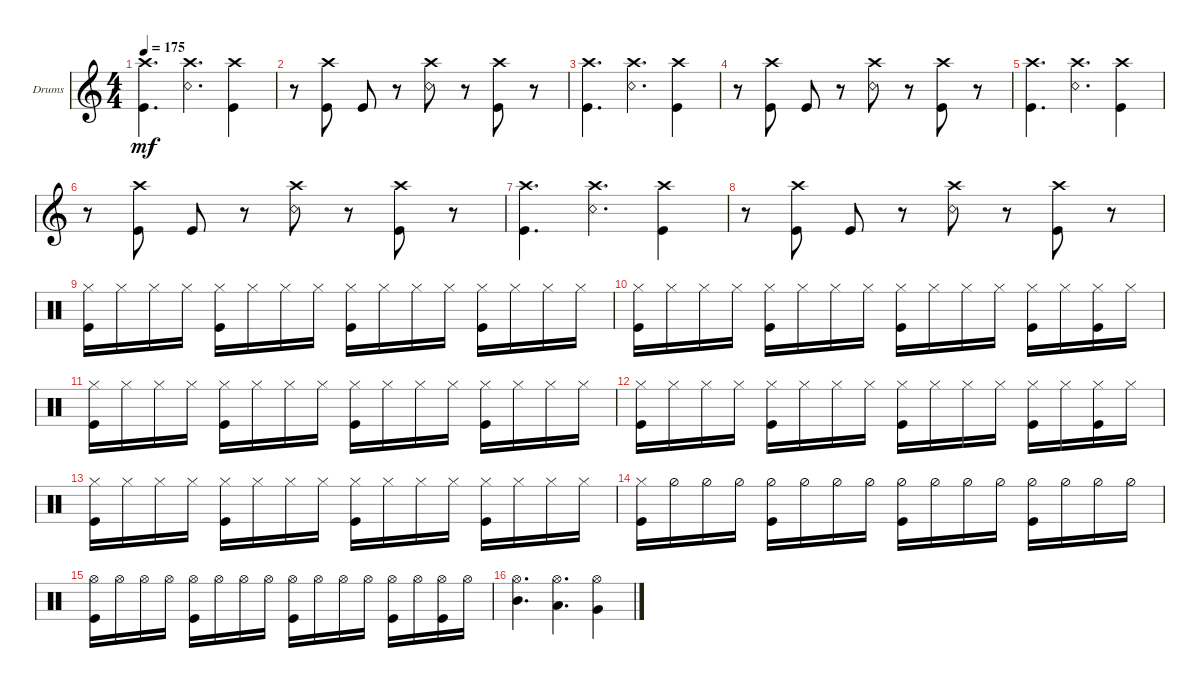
\defaultSystemsLayout 4
\bracketExtendMode groupsimilarinstruments
\firstSystemTrackNameOrientation horizontal
\otherSystemsTrackNameOrientation horizontal
\track ("Drumkit" "Drums") {instrument percussion}
\staff {score}
\articulation defaults
\ts (4 4)
\tempo 175
\clef g2
\ks c
("Kick (hit)" "Crash high (hit)").4{d dy mf} ("Snare (rim shot)" "Crash high (hit)").4{d} ("Kick (hit)" "Crash high (hit)").4 |
r.8 ("Kick (hit)" "Crash high (hit)").8 "Kick (hit)".8 r.8 ("Snare (rim shot)" "Crash high (hit)").8 r.8 ("Kick (hit)" "Crash high (hit)").8 r.8 |
("Kick (hit)" "Crash high (hit)").4{d} ("Snare (rim shot)" "Crash high (hit)").4{d} ("Kick (hit)" "Crash high (hit)").4 |
r.8 ("Kick (hit)" "Crash high (hit)").8 "Kick (hit)".8 r.8 ("Snare (rim shot)" "Crash high (hit)").8 r.8 ("Kick (hit)" "Crash high (hit)").8 r.8 |
("Kick (hit)" "Crash high (hit)").4{d} ("Snare (rim shot)" "Crash high (hit)").4{d} ("Kick (hit)" "Crash high (hit)").4 |
r.8 ("Kick (hit)" "Crash high (hit)").8 "Kick (hit)".8 r.8 ("Snare (rim shot)" "Crash high (hit)").8 r.8 ("Kick (hit)" "Crash high (hit)").8 r.8 |
("Kick (hit)" "Crash high (hit)").4{d} ("Snare (rim shot)" "Crash high (hit)").4{d} ("Kick (hit)" "Crash high (hit)").4 |
r.8 ("Kick (hit)" "Crash high (hit)").8 "Kick (hit)".8 r.8 ("Snare (rim shot)" "Crash high (hit)").8 r.8 ("Kick (hit)" "Crash high (hit)").8 r.8 |
\clef neutral
("Hi-Hat (closed)" "Kick (hit)").16 "Hi-Hat (closed)".16 "Hi-Hat (closed)".16 "Hi-Hat (closed)".16 ("Hi-Hat (closed)" "Kick (hit)").16 "Hi-Hat (closed)".16 "Hi-Hat (closed)".16 "Hi-Hat (closed)".16 ("Hi-Hat (closed)" "Kick (hit)").16 "Hi-Hat (closed)".16 "Hi-Hat (closed)".16 "Hi-Hat (closed)".16 ("Hi-Hat (closed)" "Kick (hit)").16 "Hi-Hat (closed)".16 "Hi-Hat (closed)".16 "Hi-Hat (closed)".16 |
("Hi-Hat (closed)" "Kick (hit)").16 "Hi-Hat (closed)".16 "Hi-Hat (closed)".16 "Hi-Hat (closed)".16 ("Hi-Hat (closed)" "Kick (hit)").16 "Hi-Hat (closed)".16 "Hi-Hat (closed)".16 "Hi-Hat (closed)".16 ("Hi-Hat (closed)" "Kick (hit)").16 "Hi-Hat (closed)".16 "Hi-Hat (closed)".16 "Hi-Hat (closed)".16 ("Hi-Hat (closed)" "Kick (hit)").16 "Hi-Hat (closed)".16 ("Hi-Hat (closed)" "Kick (hit)").16 "Hi-Hat (closed)".16 |
("Hi-Hat (closed)" "Kick (hit)").16 "Hi-Hat (closed)".16 "Hi-Hat (closed)".16 "Hi-Hat (closed)".16 ("Hi-Hat (closed)" "Kick (hit)").16 "Hi-Hat (closed)".16 "Hi-Hat (closed)".16 "Hi-Hat (closed)".16 ("Hi-Hat (closed)" "Kick (hit)").16 "Hi-Hat (closed)".16 "Hi-Hat (closed)".16 "Hi-Hat (closed)".16 ("Hi-Hat (closed)" "Kick (hit)").16 "Hi-Hat (closed)".16 "Hi-Hat (closed)".16 "Hi-Hat (closed)".16 |
("Hi-Hat (closed)" "Kick (hit)").16 "Hi-Hat (closed)".16 "Hi-Hat (closed)".16 "Hi-Hat (closed)".16 ("Hi-Hat (closed)" "Kick (hit)").16 "Hi-Hat (closed)".16 "Hi-Hat (closed)".16 "Hi-Hat (closed)".16 ("Hi-Hat (closed)" "Kick (hit)").16 "Hi-Hat (closed)".16 "Hi-Hat (closed)".16 "Hi-Hat (closed)".16 ("Hi-Hat (closed)" "Kick (hit)").16 "Hi-Hat (closed)".16 ("Hi-Hat (closed)" "Kick (hit)").16 "Hi-Hat (closed)".16 |
("Hi-Hat (closed)" "Kick (hit)").16 "Hi-Hat (closed)".16 "Hi-Hat (closed)".16 "Hi-Hat (closed)".16 ("Hi-Hat (closed)" "Kick (hit)").16 "Hi-Hat (closed)".16 "Hi-Hat (closed)".16 "Hi-Hat (closed)".16 ("Hi-Hat (closed)" "Kick (hit)").16 "Hi-Hat (closed)".16 "Hi-Hat (closed)".16 "Hi-Hat (closed)".16 ("Hi-Hat (closed)" "Kick (hit)").16 "Hi-Hat (closed)".16 "Hi-Hat (closed)".16 "Hi-Hat (closed)".16 |
("Hi-Hat (closed)" "Kick (hit)").16 "Hi-Hat (half)".16 "Hi-Hat (half)".16 "Hi-Hat (half)".16 ("Hi-Hat (half)" "Kick (hit)").16 "Hi-Hat (half)".16 "Hi-Hat (half)".16 "Hi-Hat (half)".16 ("Hi-Hat (half)" "Kick (hit)").16 "Hi-Hat (half)".16 "Hi-Hat (half)".16 "Hi-Hat (half)".16 ("Hi-Hat (half)" "Kick (hit)").16 "Hi-Hat (half)".16 "Hi-Hat (half)".16 "Hi-Hat (half)".16 |
("Hi-Hat (open)" "Kick (hit)").16 "Hi-Hat (open)".16 "Hi-Hat (open)".16 "Hi-Hat (open)".16 ("Hi-Hat (open)" "Kick (hit)").16 "Hi-Hat (open)".16 "Hi-Hat (open)".16 "Hi-Hat (open)".16 ("Hi-Hat (open)" "Kick (hit)").16 "Hi-Hat (open)".16 "Hi-Hat (open)".16 "Hi-Hat (open)".16 ("Hi-Hat (open)" "Kick (hit)").16 "Hi-Hat (open)".16 ("Hi-Hat (open)" "Kick (hit)").16 "Hi-Hat (open)".16 |
("Mid Tom (hit)" "Hi-Hat (open)").4{d} ("Low Tom (hit)" "Hi-Hat (open)").4{d} ("Very Low Tom (hit)" "Hi-Hat (open)").4
